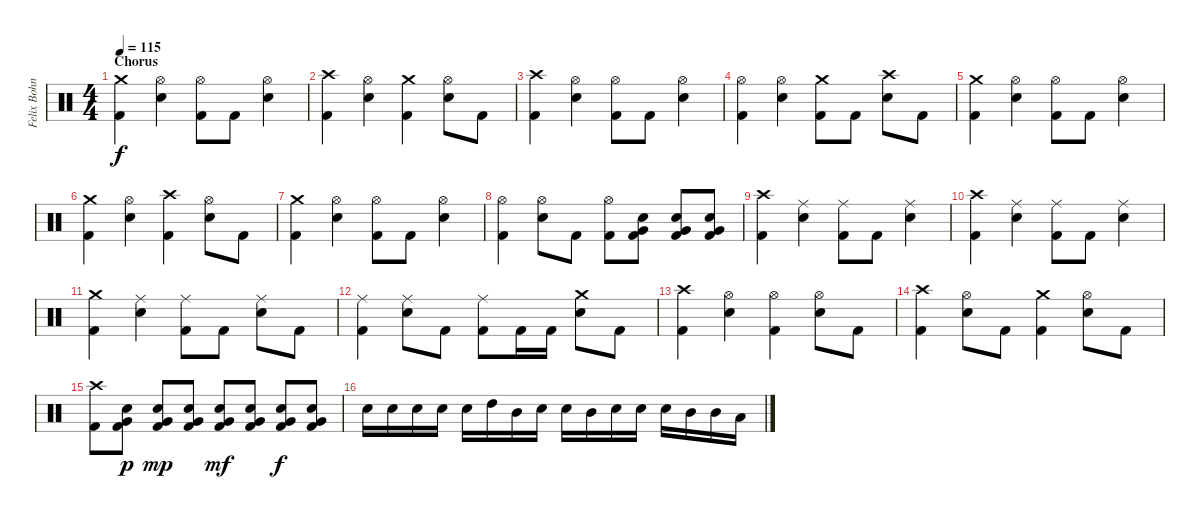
\track ("Felix Bohnke" "Felix Bohn") {instrument percussion}
\staff {score}
\articulation defaults
\ts (4 4)
\section ("" "Chorus")
\tempo 115
\clef neutral
\ks c
("Crash medium (hit)" "Kick (hit) 2").4{dy f} ("Hi-Hat (open)" "Electric Snare (hit)").4 ("Hi-Hat (open)" "Kick (hit) 2").8 "Kick (hit) 2".8 ("Hi-Hat (open)" "Electric Snare (hit)").4 |
("Crash high (hit)" "Kick (hit) 2").4 ("Hi-Hat (open)" "Electric Snare (hit)").4 ("Crash medium (hit)" "Kick (hit) 2").4 ("Hi-Hat (open)" "Electric Snare (hit)").8 "Kick (hit) 2".8 |
("Crash high (hit)" "Kick (hit) 2").4 ("Hi-Hat (open)" "Electric Snare (hit)").4 ("Hi-Hat (open)" "Kick (hit) 2").8 "Kick (hit) 2".8 ("Hi-Hat (open)" "Electric Snare (hit)").4 |
("Hi-Hat (open)" "Kick (hit) 2").4 ("Hi-Hat (open)" "Electric Snare (hit)").4 ("Crash medium (hit)" "Kick (hit) 2").8 "Kick (hit) 2".8 ("Crash high (hit)" "Electric Snare (hit)").8 "Kick (hit) 2".8 |
("Crash medium (hit)" "Kick (hit) 2").4 ("Hi-Hat (open)" "Electric Snare (hit)").4 ("Hi-Hat (open)" "Kick (hit) 2").8 "Kick (hit) 2".8 ("Hi-Hat (open)" "Electric Snare (hit)").4 |
("Crash medium (hit)" "Kick (hit) 2").4 ("Hi-Hat (open)" "Electric Snare (hit)").4 ("Crash high (hit)" "Kick (hit) 2").4 ("Hi-Hat (open)" "Electric Snare (hit)").8 "Kick (hit) 2".8 |
("Crash medium (hit)" "Kick (hit) 2").4 ("Hi-Hat (open)" "Electric Snare (hit)").4 ("Hi-Hat (open)" "Kick (hit) 2").8 "Kick (hit) 2".8 ("Hi-Hat (open)" "Electric Snare (hit)").4 |
("Hi-Hat (open)" "Kick (hit) 2").4 ("Hi-Hat (open)" "Electric Snare (hit)").8 "Kick (hit) 2".8 ("Hi-Hat (open)" "Kick (hit) 2").8 ("Very Low Tom (hit)" "Electric Snare (hit)" "Kick (hit) 2").8 ("Very Low Tom (hit)" "Electric Snare (hit)" "Kick (hit) 2").8 ("Very Low Tom (hit)" "Electric Snare (hit)" "Kick (hit) 2").8 |
("Crash high (hit)" "Kick (hit) 2").4 ("Ride (middle)" "Electric Snare (hit)").4 ("Ride (middle)" "Kick (hit) 2").8 "Kick (hit) 2".8 ("Ride (middle)" "Electric Snare (hit)").4 |
("Crash high (hit)" "Kick (hit) 2").4 ("Ride (middle)" "Electric Snare (hit)").4 ("Ride (middle)" "Kick (hit) 2").8 "Kick (hit) 2".8 ("Ride (middle)" "Electric Snare (hit)").4 |
("Crash medium (hit)" "Kick (hit) 2").4 ("Ride (middle)" "Electric Snare (hit)").4 ("Ride (middle)" "Kick (hit) 2").8 "Kick (hit) 2".8 ("Ride (middle)" "Electric Snare (hit)").8 "Kick (hit) 2".8 |
("Ride (middle)" "Kick (hit) 2").4 ("Ride (middle)" "Electric Snare (hit)").8 "Kick (hit) 2".8 ("Ride (middle)" "Kick (hit) 2").8 "Kick (hit) 2".16 "Kick (hit) 2".16 ("Crash medium (hit)" "Electric Snare (hit)").8 "Kick (hit) 2".8 |
("Crash high (hit)" "Kick (hit) 2").4 ("Hi-Hat (open)" "Electric Snare (hit)").4 ("Hi-Hat (open)" "Kick (hit) 2").4 ("Hi-Hat (open)" "Electric Snare (hit)").8 "Kick (hit) 2".8 |
("Crash high (hit)" "Kick (hit) 2").4 ("Hi-Hat (open)" "Electric Snare (hit)").8 "Kick (hit) 2".8 ("Crash medium (hit)" "Kick (hit) 2").4 ("Hi-Hat (open)" "Electric Snare (hit)").8 "Kick (hit) 2".8 |
("Crash high (hit)" "Kick (hit) 2").8 ("Very Low Tom (hit)" "Electric Snare (hit)" "Kick (hit) 2").8{dy p} ("Very Low Tom (hit)" "Electric Snare (hit)" "Kick (hit) 2").8{dy mp} ("Very Low Tom (hit)" "Electric Snare (hit)" "Kick (hit) 2").8 ("Very Low Tom (hit)" "Electric Snare (hit)" "Kick (hit) 2").8{dy mf} ("Very Low Tom (hit)" "Electric Snare (hit)" "Kick (hit) 2").8 ("Very Low Tom (hit)" "Electric Snare (hit)" "Kick (hit) 2").8{dy f} ("Very Low Tom (hit)" "Electric Snare (hit)" "Kick (hit) 2").8 |
"Electric Snare (hit)".16 "Electric Snare (hit)".16 "Electric Snare (hit)".16 "Electric Snare (hit)".16 "Electric Snare (hit)".16 "High Tom (hit)".16 "Mid Tom (hit)".16 "Electric Snare (hit)".16 "Electric Snare (hit)".16 "Mid Tom (hit)".16 "Electric Snare (hit)".16 "Electric Snare (hit)".16 "Electric Snare (hit)".16 "Mid Tom (hit)".16 "Mid Tom (hit)".16 "Low Tom (hit)".16
